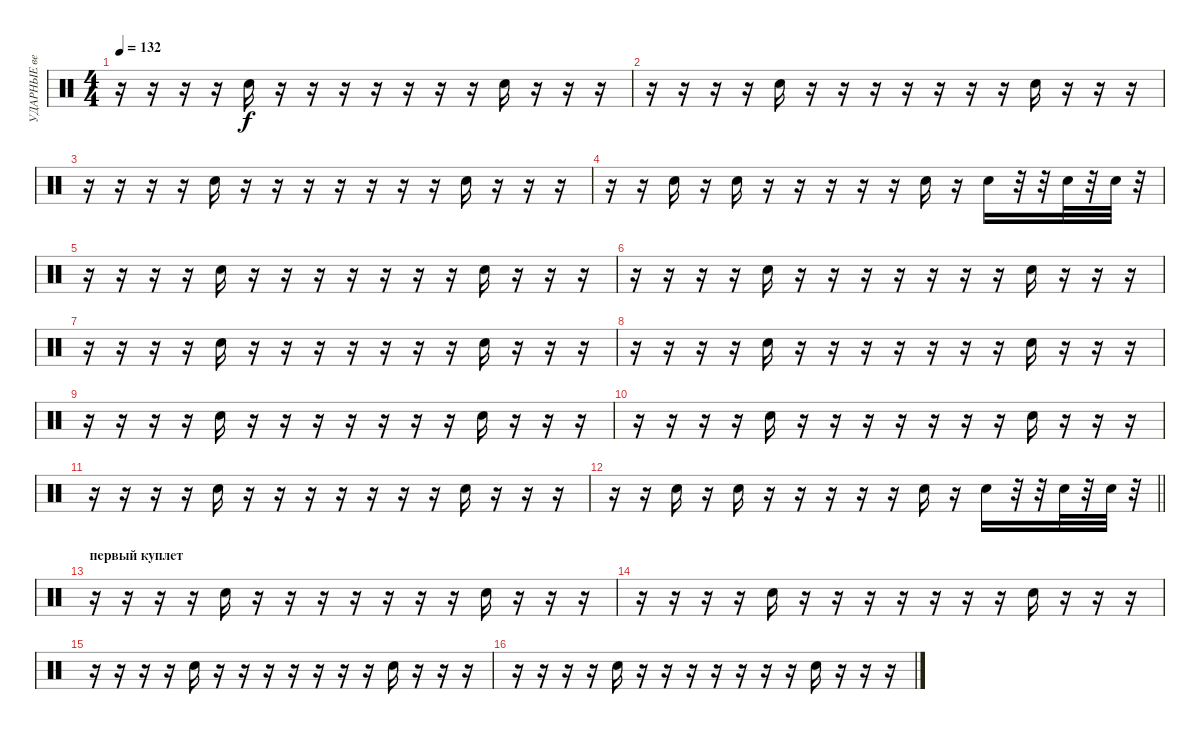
\track ("УДАРНЫЕ ведущий" "УДАРНЫЕ ве") {instrument percussion}
\staff {score}
\articulation defaults
\ts (4 4)
\tempo 132
\clef neutral
\ks c
r.16{dy f} r.16 r.16 r.16 "Snare (hit) 2".16 r.16 r.16 r.16 r.16 r.16 r.16 r.16 "Snare (hit) 2".16 r.16 r.16 r.16 |
r.16 r.16 r.16 r.16 "Snare (hit) 2".16 r.16 r.16 r.16 r.16 r.16 r.16 r.16 "Snare (hit) 2".16 r.16 r.16 r.16 |
r.16 r.16 r.16 r.16 "Snare (hit) 2".16 r.16 r.16 r.16 r.16 r.16 r.16 r.16 "Snare (hit) 2".16 r.16 r.16 r.16 |
r.16 r.16 "Snare (hit) 2".16 r.16 "Snare (hit) 2".16 r.16 r.16 r.16 r.16 r.16 "Snare (hit) 2".16 r.16 "Snare (hit) 2".16 r.32 r.32 "Snare (hit) 2".32 r.32 "Snare (hit) 2".32 r.32 |
r.16 r.16 r.16 r.16 "Snare (hit) 2".16 r.16 r.16 r.16 r.16 r.16 r.16 r.16 "Snare (hit) 2".16 r.16 r.16 r.16 |
r.16 r.16 r.16 r.16 "Snare (hit) 2".16 r.16 r.16 r.16 r.16 r.16 r.16 r.16 "Snare (hit) 2".16 r.16 r.16 r.16 |
r.16 r.16 r.16 r.16 "Snare (hit) 2".16 r.16 r.16 r.16 r.16 r.16 r.16 r.16 "Snare (hit) 2".16 r.16 r.16 r.16 |
r.16 r.16 r.16 r.16 "Snare (hit) 2".16 r.16 r.16 r.16 r.16 r.16 r.16 r.16 "Snare (hit) 2".16 r.16 r.16 r.16 |
r.16 r.16 r.16 r.16 "Snare (hit) 2".16 r.16 r.16 r.16 r.16 r.16 r.16 r.16 "Snare (hit) 2".16 r.16 r.16 r.16 |
r.16 r.16 r.16 r.16 "Snare (hit) 2".16 r.16 r.16 r.16 r.16 r.16 r.16 r.16 "Snare (hit) 2".16 r.16 r.16 r.16 |
r.16 r.16 r.16 r.16 "Snare (hit) 2".16 r.16 r.16 r.16 r.16 r.16 r.16 r.16 "Snare (hit) 2".16 r.16 r.16 r.16 |
\barLineRight lightlight
r.16 r.16 "Snare (hit) 2".16 r.16 "Snare (hit) 2".16 r.16 r.16 r.16 r.16 r.16 "Snare (hit) 2".16 r.16 "Snare (hit) 2".16 r.32 r.32 "Snare (hit) 2".32 r.32 "Snare (hit) 2".32 r.32 |
\section ("" "первый куплет")
r.16 r.16 r.16 r.16 "Snare (hit) 2".16 r.16 r.16 r.16 r.16 r.16 r.16 r.16 "Snare (hit) 2".16 r.16 r.16 r.16 |
r.16 r.16 r.16 r.16 "Snare (hit) 2".16 r.16 r.16 r.16 r.16 r.16 r.16 r.16 "Snare (hit) 2".16 r.16 r.16 r.16 |
r.16 r.16 r.16 r.16 "Snare (hit) 2".16 r.16 r.16 r.16 r.16 r.16 r.16 r.16 "Snare (hit) 2".16 r.16 r.16 r.16 |
r.16 r.16 r.16 r.16 "Snare (hit) 2".16 r.16 r.16 r.16 r.16 r.16 r.16 r.16 "Snare (hit) 2".16 r.16 r.16 r.16
